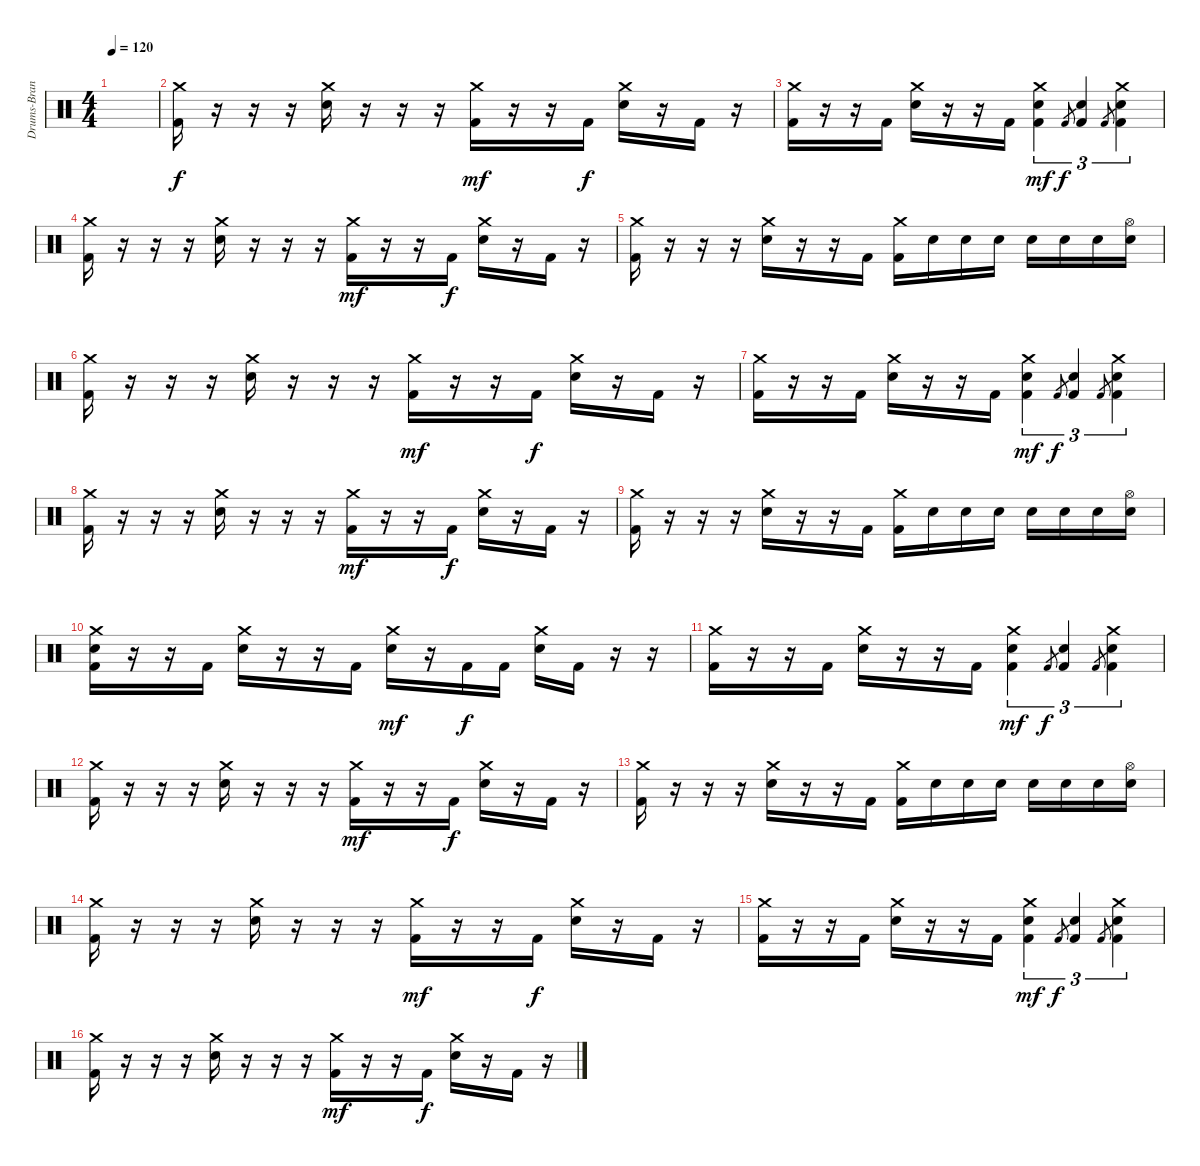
\track ("Drums-Branden Steineckert" "Drums-Bran") {instrument percussion}
\staff {score}
\articulation defaults
\ts (4 4)
\tempo 120
\clef neutral
\ks c
|
("Crash medium (hit)" "Kick (hit) 2").16 r.16 r.16 r.16 ("Crash medium (hit)" "Electric Snare (hit)").16 r.16 r.16 r.16 ("Crash medium (hit)" "Kick (hit) 2").16{dy mf} r.16 r.16 "Kick (hit) 2".16{dy f} ("Crash medium (hit)" "Electric Snare (hit)").16 r.16 "Kick (hit) 2".16 r.16 |
("Crash medium (hit)" "Kick (hit) 2").16 r.16 r.16 "Kick (hit) 2".16 ("Crash medium (hit)" "Electric Snare (hit)").16 r.16 r.16 "Kick (hit) 2".16 ("Crash medium (hit)" "Kick (hit) 2" "Electric Snare (hit)").4{tu (3 2) dy mf} "Kick (hit) 2".8{gr dy f} ("Kick (hit) 2" "Electric Snare (hit)").4{tu (3 2)} "Kick (hit) 2".8{gr} ("Crash medium (hit)" "Kick (hit) 2" "Electric Snare (hit)").4{tu (3 2)} |
("Crash medium (hit)" "Kick (hit) 2").16 r.16 r.16 r.16 ("Crash medium (hit)" "Electric Snare (hit)").16 r.16 r.16 r.16 ("Crash medium (hit)" "Kick (hit) 2").16{dy mf} r.16 r.16 "Kick (hit) 2".16{dy f} ("Crash medium (hit)" "Electric Snare (hit)").16 r.16 "Kick (hit) 2".16 r.16 |
("Crash medium (hit)" "Kick (hit) 2").16 r.16 r.16 r.16 ("Crash medium (hit)" "Electric Snare (hit)").16 r.16 r.16 "Kick (hit) 2".16 ("Crash medium (hit)" "Kick (hit) 2").16 "Electric Snare (hit)".16 "Electric Snare (hit)".16 "Electric Snare (hit)".16 "Electric Snare (hit)".16 "Electric Snare (hit)".16 "Electric Snare (hit)".16 ("Hi-Hat (open)" "Electric Snare (hit)").16 |
("Crash medium (hit)" "Kick (hit) 2").16 r.16 r.16 r.16 ("Crash medium (hit)" "Electric Snare (hit)").16 r.16 r.16 r.16 ("Crash medium (hit)" "Kick (hit) 2").16{dy mf} r.16 r.16 "Kick (hit) 2".16{dy f} ("Crash medium (hit)" "Electric Snare (hit)").16 r.16 "Kick (hit) 2".16 r.16 |
("Crash medium (hit)" "Kick (hit) 2").16 r.16 r.16 "Kick (hit) 2".16 ("Crash medium (hit)" "Electric Snare (hit)").16 r.16 r.16 "Kick (hit) 2".16 ("Crash medium (hit)" "Kick (hit) 2" "Electric Snare (hit)").4{tu (3 2) dy mf} "Kick (hit) 2".8{gr dy f} ("Kick (hit) 2" "Electric Snare (hit)").4{tu (3 2)} "Kick (hit) 2".8{gr} ("Crash medium (hit)" "Kick (hit) 2" "Electric Snare (hit)").4{tu (3 2)} |
("Crash medium (hit)" "Kick (hit) 2").16 r.16 r.16 r.16 ("Crash medium (hit)" "Electric Snare (hit)").16 r.16 r.16 r.16 ("Crash medium (hit)" "Kick (hit) 2").16{dy mf} r.16 r.16 "Kick (hit) 2".16{dy f} ("Crash medium (hit)" "Electric Snare (hit)").16 r.16 "Kick (hit) 2".16 r.16 |
("Crash medium (hit)" "Kick (hit) 2").16 r.16 r.16 r.16 ("Crash medium (hit)" "Electric Snare (hit)").16 r.16 r.16 "Kick (hit) 2".16 ("Crash medium (hit)" "Kick (hit) 2").16 "Electric Snare (hit)".16 "Electric Snare (hit)".16 "Electric Snare (hit)".16 "Electric Snare (hit)".16 "Electric Snare (hit)".16 "Electric Snare (hit)".16 ("Hi-Hat (open)" "Electric Snare (hit)").16 |
("Crash medium (hit)" "Kick (hit) 2" "Electric Snare (hit)").16 r.16 r.16 "Kick (hit) 2".16 ("Crash medium (hit)" "Electric Snare (hit)").16 r.16 r.16 "Kick (hit) 2".16 ("Crash medium (hit)" "Electric Snare (hit)").16{dy mf} r.16 "Kick (hit) 2".16{dy f} "Kick (hit) 2".16 ("Crash medium (hit)" "Electric Snare (hit)").16 "Kick (hit) 2".16 r.16 r.16 |
("Crash medium (hit)" "Kick (hit) 2").16 r.16 r.16 "Kick (hit) 2".16 ("Crash medium (hit)" "Electric Snare (hit)").16 r.16 r.16 "Kick (hit) 2".16 ("Crash medium (hit)" "Kick (hit) 2" "Electric Snare (hit)").4{tu (3 2) dy mf} "Kick (hit) 2".8{gr dy f} ("Kick (hit) 2" "Electric Snare (hit)").4{tu (3 2)} "Kick (hit) 2".8{gr} ("Crash medium (hit)" "Kick (hit) 2" "Electric Snare (hit)").4{tu (3 2)} |
("Crash medium (hit)" "Kick (hit) 2").16 r.16 r.16 r.16 ("Crash medium (hit)" "Electric Snare (hit)").16 r.16 r.16 r.16 ("Crash medium (hit)" "Kick (hit) 2").16{dy mf} r.16 r.16 "Kick (hit) 2".16{dy f} ("Crash medium (hit)" "Electric Snare (hit)").16 r.16 "Kick (hit) 2".16 r.16 |
("Crash medium (hit)" "Kick (hit) 2").16 r.16 r.16 r.16 ("Crash medium (hit)" "Electric Snare (hit)").16 r.16 r.16 "Kick (hit) 2".16 ("Crash medium (hit)" "Kick (hit) 2").16 "Electric Snare (hit)".16 "Electric Snare (hit)".16 "Electric Snare (hit)".16 "Electric Snare (hit)".16 "Electric Snare (hit)".16 "Electric Snare (hit)".16 ("Hi-Hat (open)" "Electric Snare (hit)").16 |
("Crash medium (hit)" "Kick (hit) 2").16 r.16 r.16 r.16 ("Crash medium (hit)" "Electric Snare (hit)").16 r.16 r.16 r.16 ("Crash medium (hit)" "Kick (hit) 2").16{dy mf} r.16 r.16 "Kick (hit) 2".16{dy f} ("Crash medium (hit)" "Electric Snare (hit)").16 r.16 "Kick (hit) 2".16 r.16 |
("Crash medium (hit)" "Kick (hit) 2").16 r.16 r.16 "Kick (hit) 2".16 ("Crash medium (hit)" "Electric Snare (hit)").16 r.16 r.16 "Kick (hit) 2".16 ("Crash medium (hit)" "Kick (hit) 2" "Electric Snare (hit)").4{tu (3 2) dy mf} "Kick (hit) 2".8{gr dy f} ("Kick (hit) 2" "Electric Snare (hit)").4{tu (3 2)} "Kick (hit) 2".8{gr} ("Crash medium (hit)" "Kick (hit) 2" "Electric Snare (hit)").4{tu (3 2)} |
("Crash medium (hit)" "Kick (hit) 2").16 r.16 r.16 r.16 ("Crash medium (hit)" "Electric Snare (hit)").16 r.16 r.16 r.16 ("Crash medium (hit)" "Kick (hit) 2").16{dy mf} r.16 r.16 "Kick (hit) 2".16{dy f} ("Crash medium (hit)" "Electric Snare (hit)").16 r.16 "Kick (hit) 2".16 r.16
